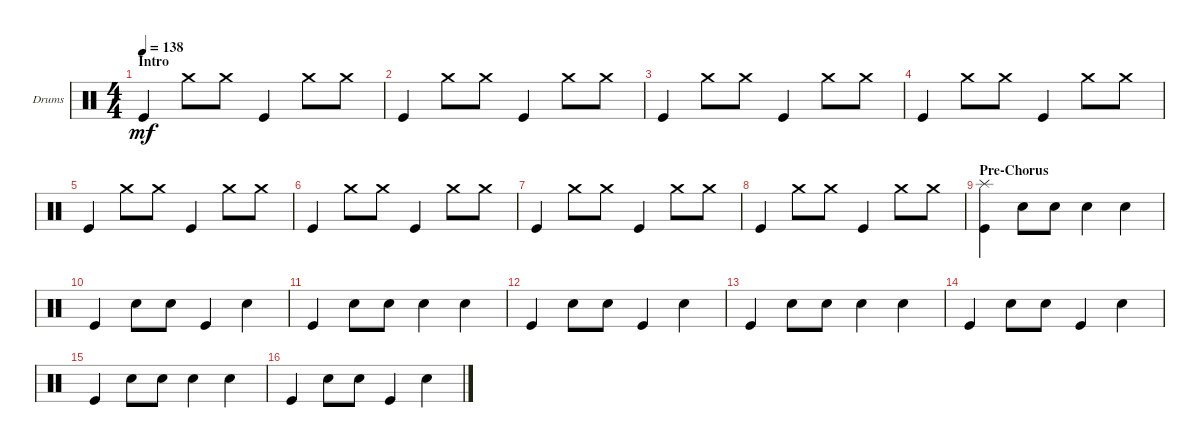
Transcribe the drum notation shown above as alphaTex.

\defaultSystemsLayout 4
\bracketExtendMode groupsimilarinstruments
\firstSystemTrackNameOrientation horizontal
\otherSystemsTrackNameOrientation horizontal
\track ("Drumkit" "Drums") {instrument percussion}
\staff {score}
\articulation defaults
\ts (4 4)
\section ("" "Intro")
\tempo 138
\clef neutral
\scale
0.472222
\ks c "Kick (hit)".4{dy mf} "Crash medium (hit)".8 "Crash medium (hit)".8 "Kick (hit)".4 "Crash medium (hit)".8 "Crash medium (hit)".8
|
\scale
0.263889 "Kick (hit)".4 "Crash medium (hit)".8 "Crash medium (hit)".8 "Kick (hit)".4 "Crash medium (hit)".8 "Crash medium (hit)".8 |
\scale
0.263889 "Kick (hit)".4 "Crash medium (hit)".8 "Crash medium (hit)".8 "Kick (hit)".4 "Crash medium (hit)".8 "Crash medium (hit)".8 |
"Kick (hit)".4 "Crash medium (hit)".8 "Crash medium (hit)".8 "Kick (hit)".4 "Crash medium (hit)".8 "Crash medium (hit)".8 |
"Kick (hit)".4 "Crash medium (hit)".8 "Crash medium (hit)".8 "Kick (hit)".4 "Crash medium (hit)".8 "Crash medium (hit)".8 |
"Kick (hit)".4 "Crash medium (hit)".8 "Crash medium (hit)".8 "Kick (hit)".4 "Crash medium (hit)".8 "Crash medium (hit)".8 |
"Kick (hit)".4 "Crash medium (hit)".8 "Crash medium (hit)".8 "Kick (hit)".4 "Crash medium (hit)".8 "Crash medium (hit)".8 |
"Kick (hit)".4 "Crash medium (hit)".8 "Crash medium (hit)".8 "Kick (hit)".4 "Crash medium (hit)".8 "Crash medium (hit)".8 |
\section ("" "Pre-Chorus")
("Splash (hit)" "Kick (hit)").4 "Snare (hit) 2".8 "Snare (hit) 2".8 "Snare (hit) 2".4 "Snare (hit) 2".4 |
"Kick (hit)".4 "Snare (hit) 2".8 "Snare (hit) 2".8 "Kick (hit)".4 "Snare (hit) 2".4 |
"Kick (hit)".4 "Snare (hit) 2".8 "Snare (hit) 2".8 "Snare (hit) 2".4 "Snare (hit) 2".4 |
"Kick (hit)".4 "Snare (hit) 2".8 "Snare (hit) 2".8 "Kick (hit)".4 "Snare (hit) 2".4 |
"Kick (hit)".4 "Snare (hit) 2".8 "Snare (hit) 2".8 "Snare (hit) 2".4 "Snare (hit) 2".4 |
"Kick (hit)".4 "Snare (hit) 2".8 "Snare (hit) 2".8 "Kick (hit)".4 "Snare (hit) 2".4 |
"Kick (hit)".4 "Snare (hit) 2".8 "Snare (hit) 2".8 "Snare (hit) 2".4 "Snare (hit) 2".4 |
"Kick (hit)".4 "Snare (hit) 2".8 "Snare (hit) 2".8 "Kick (hit)".4 "Snare (hit) 2".4
